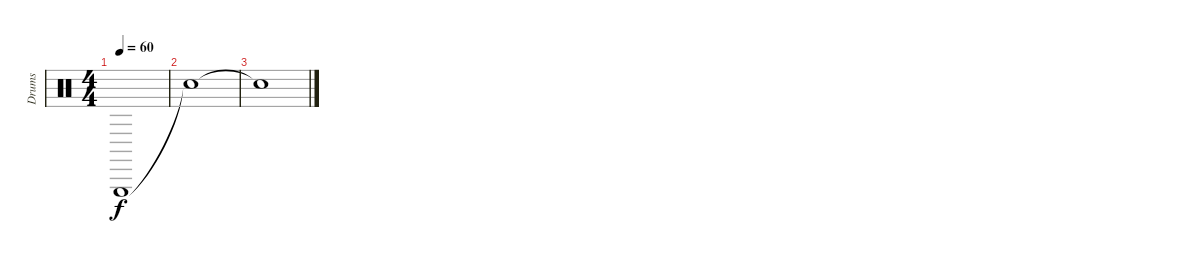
\track ("Drums" "Drums") {instrument percussion}
\staff {score}
\articulation defaults
\ts (4 4)
\tempo 60
\clef neutral
\ks c "Triangle (hit)"{t}.1{dy f volume 0}
|
"Snare (hit)"{t}.1 |
"Snare (hit)"{t}.1
